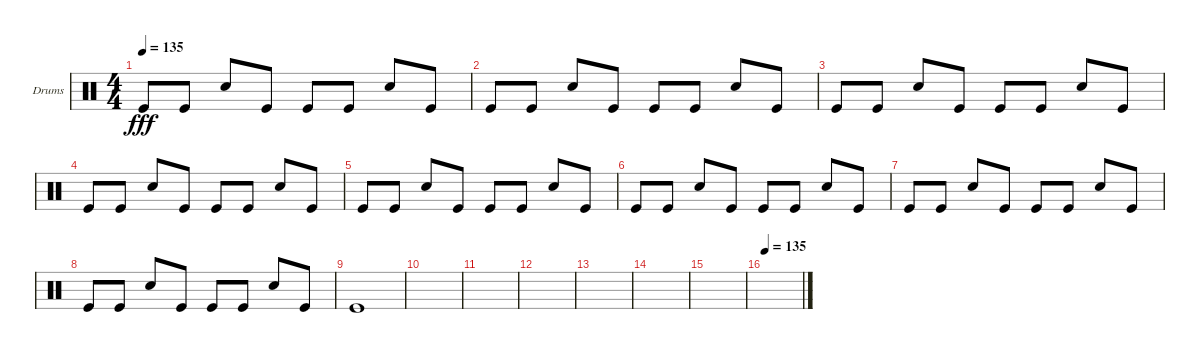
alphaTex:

\defaultSystemsLayout 4
\bracketExtendMode groupsimilarinstruments
\firstSystemTrackNameOrientation horizontal
\otherSystemsTrackNameOrientation horizontal
\track ("Helders" "Drums") {instrument percussion}
\staff {score}
\articulation defaults
\ts (4 4)
\tempo 135
\clef neutral
\ks c "Kick (hit)".8{dy fff} "Kick (hit)".8 "Snare (hit) 2".8 "Kick (hit)".8 "Kick (hit)".8 "Kick (hit)".8 "Snare (hit) 2".8 "Kick (hit)".8
|
"Kick (hit)".8 "Kick (hit)".8 "Snare (hit) 2".8 "Kick (hit)".8 "Kick (hit)".8 "Kick (hit)".8 "Snare (hit) 2".8 "Kick (hit)".8 |
"Kick (hit)".8 "Kick (hit)".8 "Snare (hit) 2".8 "Kick (hit)".8 "Kick (hit)".8 "Kick (hit)".8 "Snare (hit) 2".8 "Kick (hit)".8 |
"Kick (hit)".8 "Kick (hit)".8 "Snare (hit) 2".8 "Kick (hit)".8 "Kick (hit)".8 "Kick (hit)".8 "Snare (hit) 2".8 "Kick (hit)".8 |
"Kick (hit)".8 "Kick (hit)".8 "Snare (hit) 2".8 "Kick (hit)".8 "Kick (hit)".8 "Kick (hit)".8 "Snare (hit) 2".8 "Kick (hit)".8 |
"Kick (hit)".8 "Kick (hit)".8 "Snare (hit) 2".8 "Kick (hit)".8 "Kick (hit)".8 "Kick (hit)".8 "Snare (hit) 2".8 "Kick (hit)".8 |
"Kick (hit)".8 "Kick (hit)".8 "Snare (hit) 2".8 "Kick (hit)".8 "Kick (hit)".8 "Kick (hit)".8 "Snare (hit) 2".8 "Kick (hit)".8 |
"Kick (hit)".8 "Kick (hit)".8 "Snare (hit) 2".8 "Kick (hit)".8 "Kick (hit)".8 "Kick (hit)".8 "Snare (hit) 2".8 "Kick (hit)".8 |
"Kick (hit)".1 |
|
|
|
|
|
|
\tempo 135
